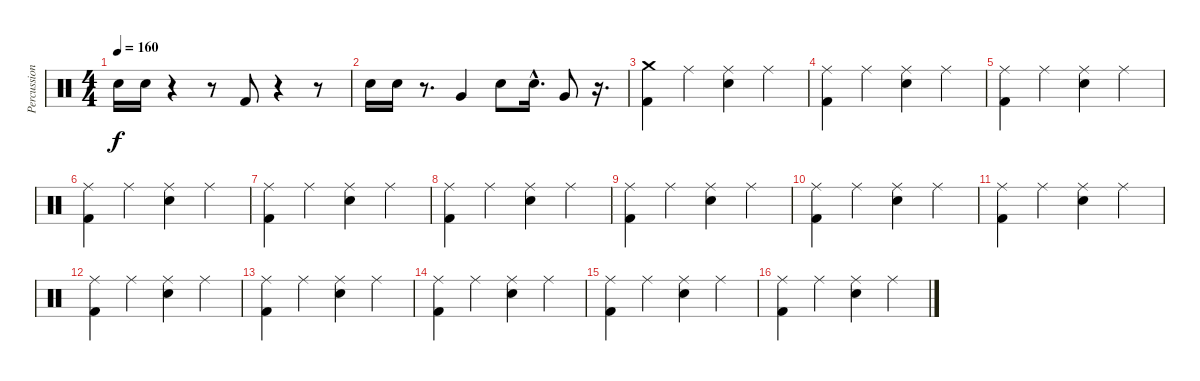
\track ("Percussion" "Percussion") {instrument percussion}
\staff {score}
\articulation defaults
\ts (4 4)
\tempo 160
\clef neutral
\ks c "Electric Snare (hit)".16{dy f} "Electric Snare (hit)".16
r.4 r.8 "Kick (hit) 2".8 r.4 r.8 |
"Electric Snare (hit)".16 "Electric Snare (hit)".16 r.8{d} "Very Low Tom (hit)".4 "Electric Snare (hit)".8 "Electric Snare (hit)"{hac}.16{d} "Very Low Tom (hit)".8 r.16{d} |
("Crash medium (hit)" "Kick (hit) 2").4 "Ride (middle)".4 ("Ride (middle)" "Electric Snare (hit)").4 "Ride (middle)".4 |
("Ride (middle)" "Kick (hit) 2").4 "Ride (middle)".4 ("Ride (middle)" "Electric Snare (hit)").4 "Ride (middle)".4 |
("Ride (middle)" "Kick (hit) 2").4 "Ride (middle)".4 ("Ride (middle)" "Electric Snare (hit)").4 "Ride (middle)".4 |
("Ride (middle)" "Kick (hit) 2").4 "Ride (middle)".4 ("Ride (middle)" "Electric Snare (hit)").4 "Ride (middle)".4 |
("Ride (middle)" "Kick (hit) 2").4 "Ride (middle)".4 ("Ride (middle)" "Electric Snare (hit)").4 "Ride (middle)".4 |
("Ride (middle)" "Kick (hit) 2").4 "Ride (middle)".4 ("Ride (middle)" "Electric Snare (hit)").4 "Ride (middle)".4 |
("Ride (middle)" "Kick (hit) 2").4 "Ride (middle)".4 ("Ride (middle)" "Electric Snare (hit)").4 "Ride (middle)".4 |
("Ride (middle)" "Kick (hit) 2").4 "Ride (middle)".4 ("Ride (middle)" "Electric Snare (hit)").4 "Ride (middle)".4 |
("Ride (middle)" "Kick (hit) 2").4 "Ride (middle)".4 ("Ride (middle)" "Electric Snare (hit)").4 "Ride (middle)".4 |
("Ride (middle)" "Kick (hit) 2").4 "Ride (middle)".4 ("Ride (middle)" "Electric Snare (hit)").4 "Ride (middle)".4 |
("Ride (middle)" "Kick (hit) 2").4 "Ride (middle)".4 ("Ride (middle)" "Electric Snare (hit)").4 "Ride (middle)".4 |
("Ride (middle)" "Kick (hit) 2").4 "Ride (middle)".4 ("Ride (middle)" "Electric Snare (hit)").4 "Ride (middle)".4 |
("Ride (middle)" "Kick (hit) 2").4 "Ride (middle)".4 ("Ride (middle)" "Electric Snare (hit)").4 "Ride (middle)".4 |
("Ride (middle)" "Kick (hit) 2").4 "Ride (middle)".4 ("Ride (middle)" "Electric Snare (hit)").4 "Ride (middle)".4
